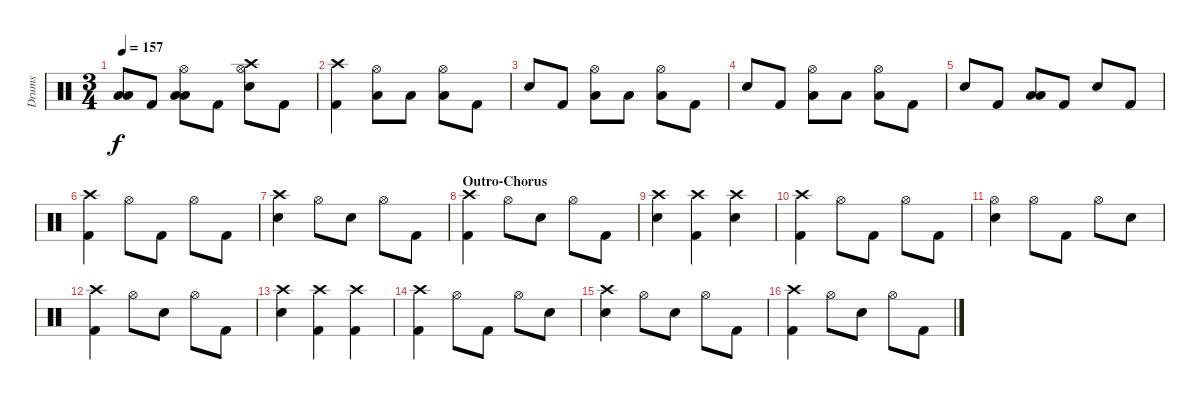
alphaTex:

\track ("Drums" "Drums") {instrument percussion}
\staff {score}
\articulation defaults
\ts (3 4)
\tempo 157
\clef neutral
\ks c
("Low Tom (hit)" "Low Floor Tom (hit)").8{dy f} "Kick (hit) 2".8 ("Hi-Hat (open)" "Low Tom (hit)" "Low Floor Tom (hit)").8 "Kick (hit) 2".8 ("Crash high (hit)" "Hi-Hat (open)" "Electric Snare (hit)").8 "Kick (hit) 2".8 |
("Crash high (hit)" "Kick (hit) 2").4 ("Hi-Hat (open)" "Low Floor Tom (hit)").8 "Low Tom (hit)".8 ("Hi-Hat (open)" "Low Floor Tom (hit)").8 "Kick (hit) 2".8 |
"Electric Snare (hit)".8 "Kick (hit) 2".8 ("Hi-Hat (open)" "Low Floor Tom (hit)").8 "Low Tom (hit)".8 ("Hi-Hat (open)" "Low Floor Tom (hit)").8 "Kick (hit) 2".8 |
"Electric Snare (hit)".8 "Kick (hit) 2".8 ("Hi-Hat (open)" "Low Floor Tom (hit)").8 "Low Tom (hit)".8 ("Hi-Hat (open)" "Low Floor Tom (hit)").8 "Kick (hit) 2".8 |
"Electric Snare (hit)".8 "Kick (hit) 2".8 ("Low Tom (hit)" "Low Floor Tom (hit)").8 "Kick (hit) 2".8 "Electric Snare (hit)".8 "Kick (hit) 2".8 |
("Crash high (hit)" "Kick (hit) 2").4 "Hi-Hat (open)".8 "Kick (hit) 2".8 "Hi-Hat (open)".8 "Kick (hit) 2".8 |
("Crash high (hit)" "Electric Snare (hit)").4 "Hi-Hat (open)".8 "Electric Snare (hit)".8 "Hi-Hat (open)".8 "Kick (hit) 2".8 |
\section ("" "Outro-Chorus")
("Crash high (hit)" "Kick (hit) 2").4 "Hi-Hat (open)".8 "Electric Snare (hit)".8 "Hi-Hat (open)".8 "Kick (hit) 2".8 |
("Crash high (hit)" "Electric Snare (hit)").4 ("Crash high (hit)" "Kick (hit) 2").4 ("Crash high (hit)" "Electric Snare (hit)").4 |
("Crash high (hit)" "Kick (hit) 2").4 "Hi-Hat (open)".8 "Kick (hit) 2".8 "Hi-Hat (open)".8 "Kick (hit) 2".8 |
("Hi-Hat (open)" "Electric Snare (hit)").4 "Hi-Hat (open)".8 "Kick (hit) 2".8 "Hi-Hat (open)".8 "Electric Snare (hit)".8 |
("Crash high (hit)" "Kick (hit) 2").4 "Hi-Hat (open)".8 "Electric Snare (hit)".8 "Hi-Hat (open)".8 "Kick (hit) 2".8 |
("Crash high (hit)" "Electric Snare (hit)").4 ("Crash high (hit)" "Kick (hit) 2").4 ("Crash high (hit)" "Kick (hit) 2").4 |
("Crash high (hit)" "Kick (hit) 2").4 "Hi-Hat (open)".8 "Kick (hit) 2".8 "Hi-Hat (open)".8 "Electric Snare (hit)".8 |
("Crash high (hit)" "Electric Snare (hit)").4 "Hi-Hat (open)".8 "Electric Snare (hit)".8 "Hi-Hat (open)".8 "Kick (hit) 2".8 |
("Crash high (hit)" "Kick (hit) 2").4 "Hi-Hat (open)".8 "Electric Snare (hit)".8 "Hi-Hat (open)".8 "Kick (hit) 2".8
